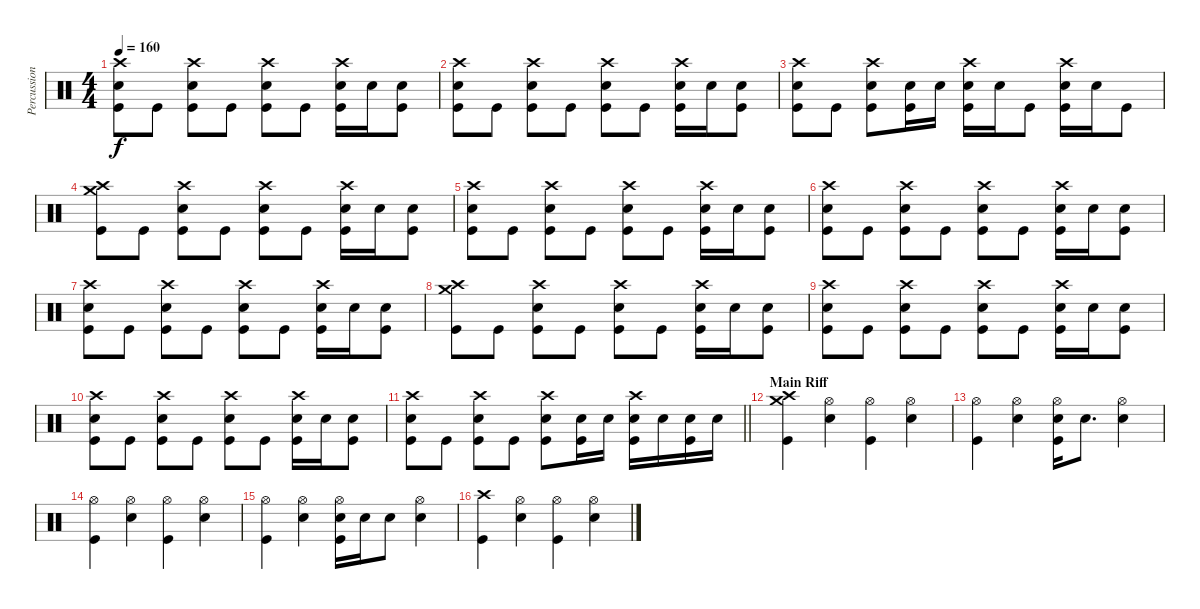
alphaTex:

\track ("Percussion" "Percussion") {instrument percussion}
\staff {score}
\articulation defaults
\ts (4 4)
\tempo 160
\clef neutral
\ks c
("Crash high (hit)" "Electric Snare (hit)" "Kick (hit)").8{dy f} "Kick (hit)".8 ("Crash high (hit)" "Electric Snare (hit)" "Kick (hit)").8 "Kick (hit)".8 ("Crash high (hit)" "Electric Snare (hit)" "Kick (hit)").8 "Kick (hit)".8 ("Crash high (hit)" "Electric Snare (hit)" "Kick (hit)").16 "Electric Snare (hit)".16 ("Electric Snare (hit)" "Kick (hit)").8 |
("Crash high (hit)" "Electric Snare (hit)" "Kick (hit)").8 "Kick (hit)".8 ("Crash high (hit)" "Electric Snare (hit)" "Kick (hit)").8 "Kick (hit)".8 ("Crash high (hit)" "Electric Snare (hit)" "Kick (hit)").8 "Kick (hit)".8 ("Crash high (hit)" "Electric Snare (hit)" "Kick (hit)").16 "Electric Snare (hit)".16 ("Electric Snare (hit)" "Kick (hit)").8 |
("Crash high (hit)" "Electric Snare (hit)" "Kick (hit)").8 "Kick (hit)".8 ("Crash high (hit)" "Electric Snare (hit)" "Kick (hit)").8 ("Electric Snare (hit)" "Kick (hit)").16 "Electric Snare (hit)".16 ("Crash high (hit)" "Electric Snare (hit)" "Kick (hit)").16 "Electric Snare (hit)".16 "Kick (hit)".8 ("Crash high (hit)" "Electric Snare (hit)" "Kick (hit)").16 "Electric Snare (hit)".16 "Kick (hit)".8 |
("Crash high (hit)" "Crash medium (hit)" "Kick (hit)").8 "Kick (hit)".8 ("Crash high (hit)" "Electric Snare (hit)" "Kick (hit)").8 "Kick (hit)".8 ("Crash high (hit)" "Electric Snare (hit)" "Kick (hit)").8 "Kick (hit)".8 ("Crash high (hit)" "Electric Snare (hit)" "Kick (hit)").16 "Electric Snare (hit)".16 ("Electric Snare (hit)" "Kick (hit)").8 |
("Crash high (hit)" "Electric Snare (hit)" "Kick (hit)").8 "Kick (hit)".8 ("Crash high (hit)" "Electric Snare (hit)" "Kick (hit)").8 "Kick (hit)".8 ("Crash high (hit)" "Electric Snare (hit)" "Kick (hit)").8 "Kick (hit)".8 ("Crash high (hit)" "Electric Snare (hit)" "Kick (hit)").16 "Electric Snare (hit)".16 ("Electric Snare (hit)" "Kick (hit)").8 |
("Crash high (hit)" "Electric Snare (hit)" "Kick (hit)").8 "Kick (hit)".8 ("Crash high (hit)" "Electric Snare (hit)" "Kick (hit)").8 "Kick (hit)".8 ("Crash high (hit)" "Electric Snare (hit)" "Kick (hit)").8 "Kick (hit)".8 ("Crash high (hit)" "Electric Snare (hit)" "Kick (hit)").16 "Electric Snare (hit)".16 ("Electric Snare (hit)" "Kick (hit)").8 |
("Crash high (hit)" "Electric Snare (hit)" "Kick (hit)").8 "Kick (hit)".8 ("Crash high (hit)" "Electric Snare (hit)" "Kick (hit)").8 "Kick (hit)".8 ("Crash high (hit)" "Electric Snare (hit)" "Kick (hit)").8 "Kick (hit)".8 ("Crash high (hit)" "Electric Snare (hit)" "Kick (hit)").16 "Electric Snare (hit)".16 ("Electric Snare (hit)" "Kick (hit)").8 |
("Crash high (hit)" "Crash medium (hit)" "Kick (hit)").8 "Kick (hit)".8 ("Crash high (hit)" "Electric Snare (hit)" "Kick (hit)").8 "Kick (hit)".8 ("Crash high (hit)" "Electric Snare (hit)" "Kick (hit)").8 "Kick (hit)".8 ("Crash high (hit)" "Electric Snare (hit)" "Kick (hit)").16 "Electric Snare (hit)".16 ("Electric Snare (hit)" "Kick (hit)").8 |
("Crash high (hit)" "Electric Snare (hit)" "Kick (hit)").8 "Kick (hit)".8 ("Crash high (hit)" "Electric Snare (hit)" "Kick (hit)").8 "Kick (hit)".8 ("Crash high (hit)" "Electric Snare (hit)" "Kick (hit)").8 "Kick (hit)".8 ("Crash high (hit)" "Electric Snare (hit)" "Kick (hit)").16 "Electric Snare (hit)".16 ("Electric Snare (hit)" "Kick (hit)").8 |
("Crash high (hit)" "Electric Snare (hit)" "Kick (hit)").8 "Kick (hit)".8 ("Crash high (hit)" "Electric Snare (hit)" "Kick (hit)").8 "Kick (hit)".8 ("Crash high (hit)" "Electric Snare (hit)" "Kick (hit)").8 "Kick (hit)".8 ("Crash high (hit)" "Electric Snare (hit)" "Kick (hit)").16 "Electric Snare (hit)".16 ("Electric Snare (hit)" "Kick (hit)").8 |
\barLineRight lightlight
("Crash high (hit)" "Electric Snare (hit)" "Kick (hit)").8 "Kick (hit)".8 ("Crash high (hit)" "Electric Snare (hit)" "Kick (hit)").8 "Kick (hit)".8 ("Crash high (hit)" "Electric Snare (hit)" "Kick (hit)").8 ("Electric Snare (hit)" "Kick (hit)").16 "Electric Snare (hit)".16 ("Crash high (hit)" "Electric Snare (hit)" "Kick (hit)").16 "Electric Snare (hit)".16 ("Electric Snare (hit)" "Kick (hit)").16 "Electric Snare (hit)".16 |
\section ("" "Main Riff")
("Crash high (hit)" "Crash medium (hit)" "Kick (hit)").4 ("Hi-Hat (open)" "Electric Snare (hit)").4 ("Hi-Hat (open)" "Kick (hit)").4 ("Hi-Hat (open)" "Electric Snare (hit)").4 |
("Hi-Hat (open)" "Kick (hit)").4 ("Hi-Hat (open)" "Electric Snare (hit)").4 ("Hi-Hat (open)" "Electric Snare (hit)" "Kick (hit)").16 "Electric Snare (hit)".8{d} ("Hi-Hat (open)" "Electric Snare (hit)").4 |
("Hi-Hat (open)" "Kick (hit)").4 ("Hi-Hat (open)" "Electric Snare (hit)").4 ("Hi-Hat (open)" "Kick (hit)").4 ("Hi-Hat (open)" "Electric Snare (hit)").4 |
("Hi-Hat (open)" "Kick (hit)").4 ("Hi-Hat (open)" "Electric Snare (hit)").4 ("Hi-Hat (open)" "Electric Snare (hit)" "Kick (hit)").16 "Electric Snare (hit)".16 "Electric Snare (hit)".8 ("Hi-Hat (open)" "Electric Snare (hit)").4 |
("Crash high (hit)" "Kick (hit)").4 ("Hi-Hat (open)" "Electric Snare (hit)").4 ("Hi-Hat (open)" "Kick (hit)").4 ("Hi-Hat (open)" "Electric Snare (hit)").4
